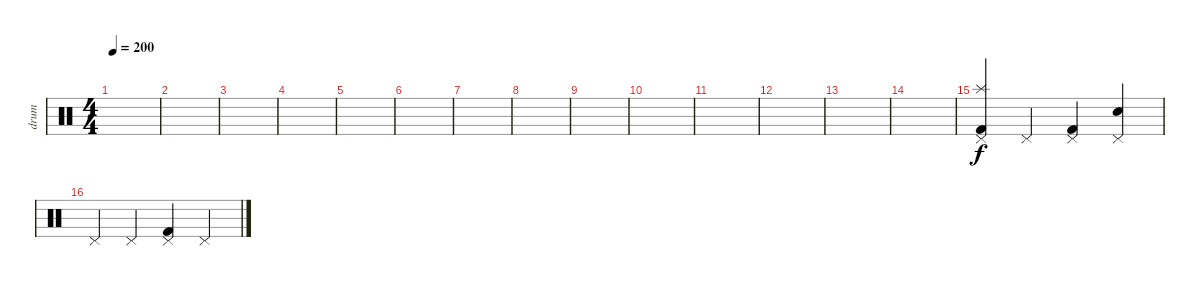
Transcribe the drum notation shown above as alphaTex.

\track ("drum" "drum") {instrument percussion}
\staff {score}
\articulation defaults
\ts (4 4)
\tempo 200
\clef neutral
\ks c
|
|
|
|
|
|
|
|
|
|
|
|
|
|
("Pedal Hi-Hat (hit)" "Splash (hit)" "Kick (hit) 2").4 "Pedal Hi-Hat (hit)".4 ("Pedal Hi-Hat (hit)" "Kick (hit) 2").4 ("Pedal Hi-Hat (hit)" "Electric Snare (hit)").4 |
"Pedal Hi-Hat (hit)".4 "Pedal Hi-Hat (hit)".4 ("Pedal Hi-Hat (hit)" "Kick (hit) 2").4 "Pedal Hi-Hat (hit)".4
